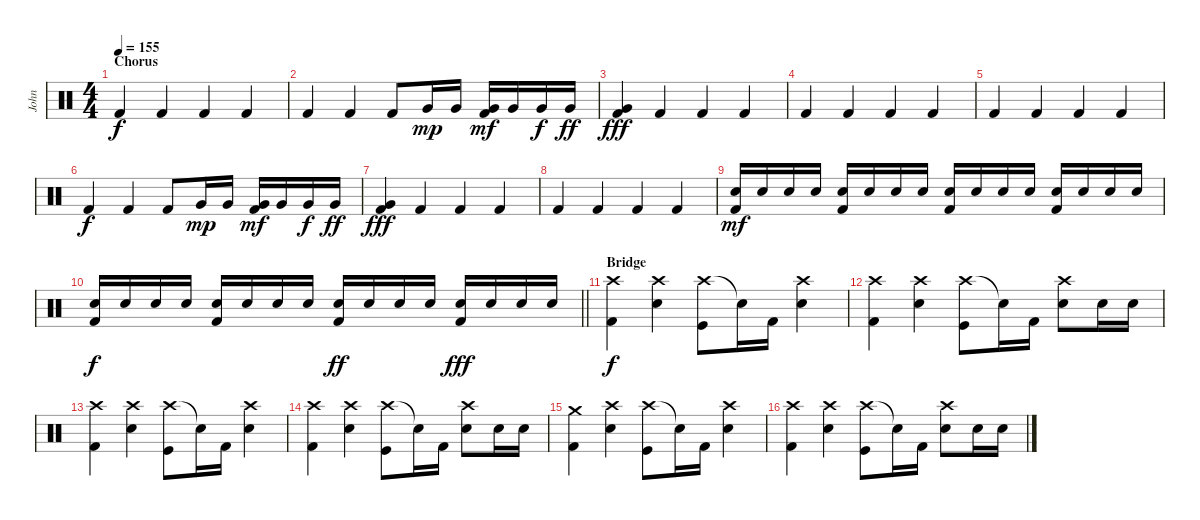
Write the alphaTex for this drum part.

\track ("John" "John") {instrument percussion}
\staff {score}
\articulation defaults
\ts (4 4)
\section ("" "Chorus")
\tempo 155
\clef neutral
\ks c "Kick (hit) 2".4{dy f} "Kick (hit) 2".4 "Kick (hit) 2".4 "Kick (hit) 2".4
|
"Kick (hit) 2".4 "Kick (hit) 2".4 "Kick (hit) 2".8 "Very Low Tom (hit)".16{dy mp} "Very Low Tom (hit)".16 ("Very Low Tom (hit)" "Kick (hit) 2").16{dy mf} "Very Low Tom (hit)".16 "Very Low Tom (hit)".16{dy f} "Very Low Tom (hit)".16{dy ff} |
("Very Low Tom (hit)" "Kick (hit) 2").4{dy fff} "Kick (hit) 2".4 "Kick (hit) 2".4 "Kick (hit) 2".4 |
"Kick (hit) 2".4 "Kick (hit) 2".4 "Kick (hit) 2".4 "Kick (hit) 2".4 |
"Kick (hit) 2".4 "Kick (hit) 2".4 "Kick (hit) 2".4 "Kick (hit) 2".4 |
"Kick (hit) 2".4{dy f} "Kick (hit) 2".4 "Kick (hit) 2".8 "Very Low Tom (hit)".16{dy mp} "Very Low Tom (hit)".16 ("Very Low Tom (hit)" "Kick (hit) 2").16{dy mf} "Very Low Tom (hit)".16 "Very Low Tom (hit)".16{dy f} "Very Low Tom (hit)".16{dy ff} |
("Very Low Tom (hit)" "Kick (hit) 2").4{dy fff} "Kick (hit) 2".4 "Kick (hit) 2".4 "Kick (hit) 2".4 |
"Kick (hit) 2".4 "Kick (hit) 2".4 "Kick (hit) 2".4 "Kick (hit) 2".4 |
("Snare (hit) 2" "Kick (hit) 2").16{dy mf} "Snare (hit) 2".16 "Snare (hit) 2".16 "Snare (hit) 2".16 ("Snare (hit) 2" "Kick (hit) 2").16 "Snare (hit) 2".16 "Snare (hit) 2".16 "Snare (hit) 2".16 ("Snare (hit) 2" "Kick (hit) 2").16 "Snare (hit) 2".16 "Snare (hit) 2".16 "Snare (hit) 2".16 ("Snare (hit) 2" "Kick (hit) 2").16 "Snare (hit) 2".16 "Snare (hit) 2".16 "Snare (hit) 2".16 |
\barLineRight lightlight
("Snare (hit) 2" "Kick (hit) 2").16{dy f} "Snare (hit) 2".16 "Snare (hit) 2".16 "Snare (hit) 2".16 ("Snare (hit) 2" "Kick (hit) 2").16 "Snare (hit) 2".16 "Snare (hit) 2".16 "Snare (hit) 2".16 ("Snare (hit) 2" "Kick (hit) 2").16{dy ff} "Snare (hit) 2".16 "Snare (hit) 2".16 "Snare (hit) 2".16 ("Snare (hit) 2" "Kick (hit) 2").16{dy fff} "Snare (hit) 2".16 "Snare (hit) 2".16 "Snare (hit) 2".16 |
\section ("" "Bridge")
("Crash high (hit)" "Kick (hit) 2").4{dy f} ("Crash high (hit)" "Snare (hit) 2").4 ("Crash high (hit)" "Kick (hit)").8 "Snare (hit)"{t}.16 "Kick (hit) 2".16 ("Crash high (hit)" "Snare (hit) 2").4 |
("Crash high (hit)" "Kick (hit) 2").4 ("Crash high (hit)" "Snare (hit) 2").4 ("Crash high (hit)" "Kick (hit)").8 "Snare (hit)"{t}.16 "Kick (hit) 2".16 ("Crash high (hit)" "Snare (hit) 2").8 "Snare (hit) 2".16 "Snare (hit) 2".16 |
("Crash high (hit)" "Kick (hit) 2").4 ("Crash high (hit)" "Snare (hit) 2").4 ("Crash high (hit)" "Kick (hit)").8 "Snare (hit)"{t}.16 "Kick (hit) 2".16 ("Crash high (hit)" "Snare (hit) 2").4 |
("Crash high (hit)" "Kick (hit) 2").4 ("Crash high (hit)" "Snare (hit) 2").4 ("Crash high (hit)" "Kick (hit)").8 "Snare (hit)"{t}.16 "Kick (hit) 2".16 ("Crash high (hit)" "Snare (hit) 2").8 "Snare (hit) 2".16 "Snare (hit) 2".16 |
("Crash medium (hit)" "Kick (hit) 2").4 ("Crash high (hit)" "Snare (hit) 2").4 ("Crash high (hit)" "Kick (hit)").8 "Snare (hit)"{t}.16 "Kick (hit) 2".16 ("Crash high (hit)" "Snare (hit) 2").4 |
("Crash high (hit)" "Kick (hit) 2").4 ("Crash high (hit)" "Snare (hit) 2").4 ("Crash high (hit)" "Kick (hit)").8 "Snare (hit)"{t}.16 "Kick (hit) 2".16 ("Crash high (hit)" "Snare (hit) 2").8 "Snare (hit) 2".16 "Snare (hit) 2".16
